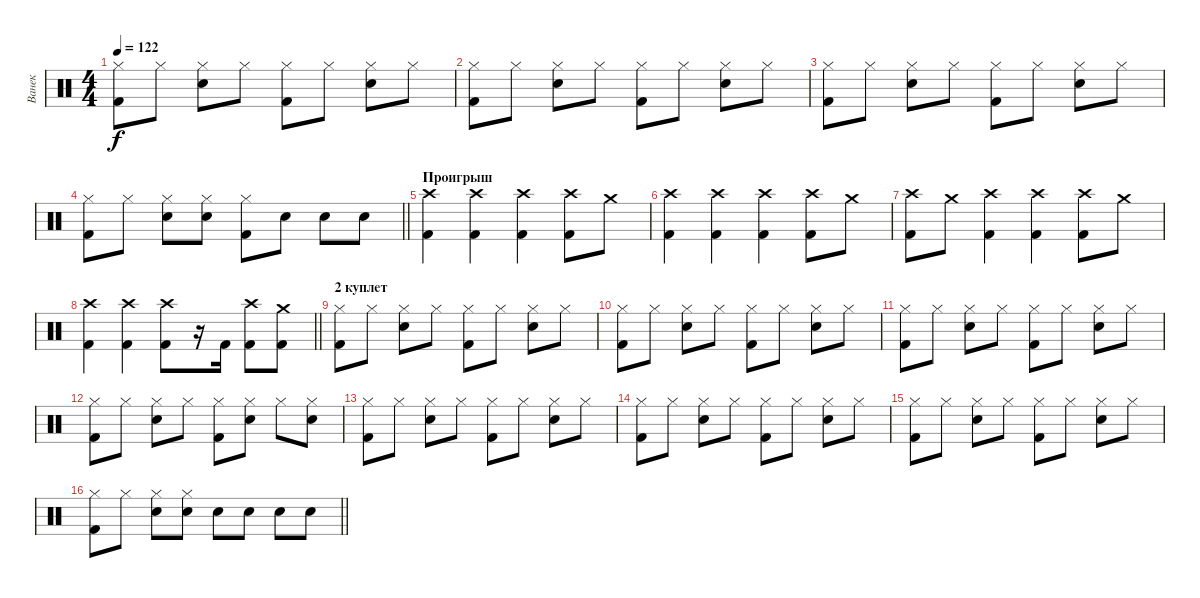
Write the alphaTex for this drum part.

\track ("Ванек" "Ванек") {instrument percussion}
\staff {score}
\articulation defaults
\ts (4 4)
\tempo 122
\clef neutral
\ks c
("Hi-Hat (closed)" "Kick (hit) 2").8{dy f} "Hi-Hat (closed)".8 ("Hi-Hat (closed)" "Electric Snare (hit)").8 "Hi-Hat (closed)".8 ("Hi-Hat (closed)" "Kick (hit) 2").8 "Hi-Hat (closed)".8 ("Hi-Hat (closed)" "Electric Snare (hit)").8 "Hi-Hat (closed)".8 |
("Hi-Hat (closed)" "Kick (hit) 2").8 "Hi-Hat (closed)".8 ("Hi-Hat (closed)" "Electric Snare (hit)").8 "Hi-Hat (closed)".8 ("Hi-Hat (closed)" "Kick (hit) 2").8 "Hi-Hat (closed)".8 ("Hi-Hat (closed)" "Electric Snare (hit)").8 "Hi-Hat (closed)".8 |
("Hi-Hat (closed)" "Kick (hit) 2").8 "Hi-Hat (closed)".8 ("Hi-Hat (closed)" "Electric Snare (hit)").8 "Hi-Hat (closed)".8 ("Hi-Hat (closed)" "Kick (hit) 2").8 "Hi-Hat (closed)".8 ("Hi-Hat (closed)" "Electric Snare (hit)").8 "Hi-Hat (closed)".8 |
\barLineRight lightlight
("Hi-Hat (closed)" "Kick (hit) 2").8 "Hi-Hat (closed)".8 ("Hi-Hat (closed)" "Electric Snare (hit)").8 ("Hi-Hat (closed)" "Electric Snare (hit)").8 ("Hi-Hat (closed)" "Kick (hit) 2").8 "Electric Snare (hit)".8 "Electric Snare (hit)".8 "Electric Snare (hit)".8 |
\section ("" "Проигрыш")
("Crash high (hit)" "Kick (hit) 2").4 ("Crash high (hit)" "Kick (hit) 2").4 ("Crash high (hit)" "Kick (hit) 2").4 ("Crash high (hit)" "Kick (hit) 2").8 "Crash medium (hit)".8 |
("Crash high (hit)" "Kick (hit) 2").4 ("Crash high (hit)" "Kick (hit) 2").4 ("Crash high (hit)" "Kick (hit) 2").4 ("Crash high (hit)" "Kick (hit) 2").8 "Crash medium (hit)".8 |
("Crash high (hit)" "Kick (hit) 2").8 "Crash medium (hit)".8 ("Crash high (hit)" "Kick (hit) 2").4 ("Crash high (hit)" "Kick (hit) 2").4 ("Crash high (hit)" "Kick (hit) 2").8 "Crash medium (hit)".8 |
\barLineRight lightlight
("Crash high (hit)" "Kick (hit) 2").4 ("Crash high (hit)" "Kick (hit) 2").4 ("Crash high (hit)" "Kick (hit) 2").8 r.16 "Kick (hit) 2".16 ("Crash high (hit)" "Kick (hit) 2").8 ("Crash medium (hit)" "Kick (hit) 2").8 |
\section ("" "2 куплет")
("Hi-Hat (closed)" "Kick (hit) 2").8 "Hi-Hat (closed)".8 ("Hi-Hat (closed)" "Electric Snare (hit)").8 "Hi-Hat (closed)".8 ("Hi-Hat (closed)" "Kick (hit) 2").8 "Hi-Hat (closed)".8 ("Hi-Hat (closed)" "Electric Snare (hit)").8 "Hi-Hat (closed)".8 |
("Hi-Hat (closed)" "Kick (hit) 2").8 "Hi-Hat (closed)".8 ("Hi-Hat (closed)" "Electric Snare (hit)").8 "Hi-Hat (closed)".8 ("Hi-Hat (closed)" "Kick (hit) 2").8 "Hi-Hat (closed)".8 ("Hi-Hat (closed)" "Electric Snare (hit)").8 "Hi-Hat (closed)".8 |
("Hi-Hat (closed)" "Kick (hit) 2").8 "Hi-Hat (closed)".8 ("Hi-Hat (closed)" "Electric Snare (hit)").8 "Hi-Hat (closed)".8 ("Hi-Hat (closed)" "Kick (hit) 2").8 "Hi-Hat (closed)".8 ("Hi-Hat (closed)" "Electric Snare (hit)").8 "Hi-Hat (closed)".8 |
("Hi-Hat (closed)" "Kick (hit) 2").8 "Hi-Hat (closed)".8 ("Hi-Hat (closed)" "Electric Snare (hit)").8 "Hi-Hat (closed)".8 ("Hi-Hat (closed)" "Kick (hit) 2").8 ("Hi-Hat (closed)" "Electric Snare (hit)").8 "Hi-Hat (closed)".8 ("Hi-Hat (closed)" "Electric Snare (hit)").8 |
("Hi-Hat (closed)" "Kick (hit) 2").8 "Hi-Hat (closed)".8 ("Hi-Hat (closed)" "Electric Snare (hit)").8 "Hi-Hat (closed)".8 ("Hi-Hat (closed)" "Kick (hit) 2").8 "Hi-Hat (closed)".8 ("Hi-Hat (closed)" "Electric Snare (hit)").8 "Hi-Hat (closed)".8 |
("Hi-Hat (closed)" "Kick (hit) 2").8 "Hi-Hat (closed)".8 ("Hi-Hat (closed)" "Electric Snare (hit)").8 "Hi-Hat (closed)".8 ("Hi-Hat (closed)" "Kick (hit) 2").8 "Hi-Hat (closed)".8 ("Hi-Hat (closed)" "Electric Snare (hit)").8 "Hi-Hat (closed)".8 |
("Hi-Hat (closed)" "Kick (hit) 2").8 "Hi-Hat (closed)".8 ("Hi-Hat (closed)" "Electric Snare (hit)").8 "Hi-Hat (closed)".8 ("Hi-Hat (closed)" "Kick (hit) 2").8 "Hi-Hat (closed)".8 ("Hi-Hat (closed)" "Electric Snare (hit)").8 "Hi-Hat (closed)".8 |
\barLineRight lightlight
("Hi-Hat (closed)" "Kick (hit) 2").8 "Hi-Hat (closed)".8 ("Hi-Hat (closed)" "Electric Snare (hit)").8 ("Hi-Hat (closed)" "Electric Snare (hit)").8 "Electric Snare (hit)".8 "Electric Snare (hit)".8 "Electric Snare (hit)".8 "Electric Snare (hit)".8
